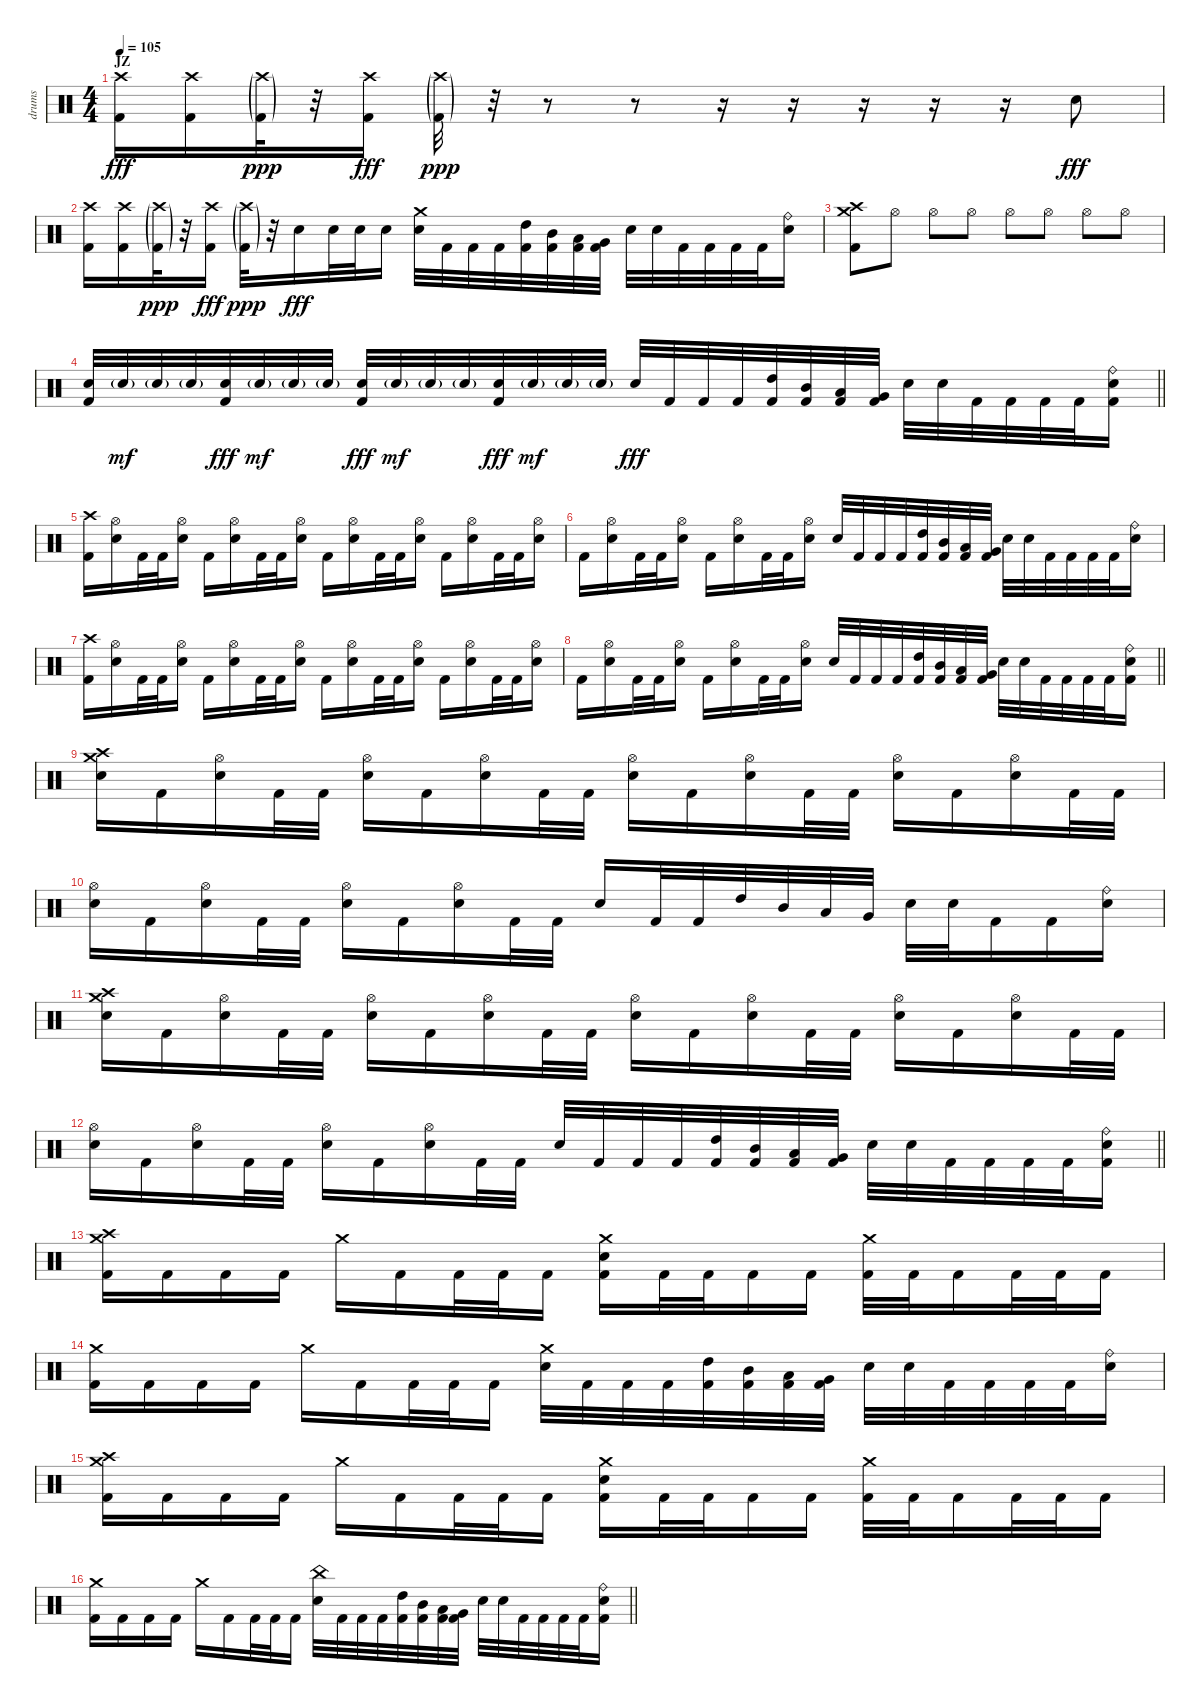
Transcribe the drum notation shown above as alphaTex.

\track ("drums" "drums") {instrument percussion}
\staff {score}
\articulation defaults
\ts (4 4)
\section ("" "JZ")
\tempo 105
\clef neutral
\ks c
("Crash high (hit)" "Kick (hit) 2").16{dy fff} ("Crash high (hit)" "Kick (hit) 2").16 ("Crash high (hit)"{g} "Kick (hit) 2"{g}).32{dy ppp} r.32 ("Crash high (hit)" "Kick (hit) 2").16{dy fff} ("Crash high (hit)"{g} "Kick (hit) 2"{g}).32{dy ppp} r.32 r.8 r.8 r.16 r.16 r.16 r.16 r.16 "Electric Snare (hit)".8{dy fff} |
("Crash high (hit)" "Kick (hit) 2").16 ("Crash high (hit)" "Kick (hit) 2").16 ("Crash high (hit)"{g} "Kick (hit) 2"{g}).32{dy ppp} r.32 ("Crash high (hit)" "Kick (hit) 2").16{dy fff} ("Crash high (hit)"{g} "Kick (hit) 2"{g}).32{dy ppp} r.32 "Electric Snare (hit)".16{dy fff} "Electric Snare (hit)".32 "Electric Snare (hit)".32 "Electric Snare (hit)".16 ("Crash medium (hit)" "Electric Snare (hit)").32 "Kick (hit) 2".32 "Kick (hit) 2".32 "Kick (hit) 2".32 ("High Tom (hit)" "Kick (hit) 2").32 ("Mid Tom (hit)" "Kick (hit) 2").32 ("Low Tom (hit)" "Kick (hit) 2").32 ("Very Low Tom (hit)" "Kick (hit) 2").32 "Electric Snare (hit)".32 "Electric Snare (hit)".32 "Kick (hit) 2".32 "Kick (hit) 2".32 "Kick (hit) 2".32 "Kick (hit) 2".32 ("Ride (bell)" "Electric Snare (hit)").16 |
("Crash high (hit)" "Crash medium (hit)" "Kick (hit) 2").8 "Hi-Hat (open)".8 "Hi-Hat (open)".8 "Hi-Hat (open)".8 "Hi-Hat (open)".8 "Hi-Hat (open)".8 "Hi-Hat (open)".8 "Hi-Hat (open)".8 |
\barLineRight lightlight
("Electric Snare (hit)" "Kick (hit) 2").32 "Electric Snare (hit)"{g}.32{dy mf} "Electric Snare (hit)"{g}.32 "Electric Snare (hit)"{g}.32 ("Electric Snare (hit)" "Kick (hit) 2").32{dy fff} "Electric Snare (hit)"{g}.32{dy mf} "Electric Snare (hit)"{g}.32 "Electric Snare (hit)"{g}.32 ("Electric Snare (hit)" "Kick (hit) 2").32{dy fff} "Electric Snare (hit)"{g}.32{dy mf} "Electric Snare (hit)"{g}.32 "Electric Snare (hit)"{g}.32 ("Electric Snare (hit)" "Kick (hit) 2").32{dy fff} "Electric Snare (hit)"{g}.32{dy mf} "Electric Snare (hit)"{g}.32 "Electric Snare (hit)"{g}.32 "Electric Snare (hit)".32{dy fff} "Kick (hit) 2".32 "Kick (hit) 2".32 "Kick (hit) 2".32 ("High Tom (hit)" "Kick (hit) 2").32 ("Mid Tom (hit)" "Kick (hit) 2").32 ("Low Tom (hit)" "Kick (hit) 2").32 ("Very Low Tom (hit)" "Kick (hit) 2").32 "Electric Snare (hit)".32 "Electric Snare (hit)".32 "Kick (hit) 2".32 "Kick (hit) 2".32 "Kick (hit) 2".32 "Kick (hit) 2".32 ("Ride (bell)" "Electric Snare (hit)" "Kick (hit) 2").16 |
\section ("" "")
("Crash high (hit)" "Kick (hit) 2").16 ("Hi-Hat (open)" "Electric Snare (hit)").16 "Kick (hit) 2".32 "Kick (hit) 2".32 ("Hi-Hat (open)" "Electric Snare (hit)").16 "Kick (hit) 2".16 ("Hi-Hat (open)" "Electric Snare (hit)").16 "Kick (hit) 2".32 "Kick (hit) 2".32 ("Hi-Hat (open)" "Electric Snare (hit)").16 "Kick (hit) 2".16 ("Hi-Hat (open)" "Electric Snare (hit)").16 "Kick (hit) 2".32 "Kick (hit) 2".32 ("Hi-Hat (open)" "Electric Snare (hit)").16 "Kick (hit) 2".16 ("Hi-Hat (open)" "Electric Snare (hit)").16 "Kick (hit) 2".32 "Kick (hit) 2".32 ("Hi-Hat (open)" "Electric Snare (hit)").16 |
"Kick (hit) 2".16 ("Hi-Hat (open)" "Electric Snare (hit)").16 "Kick (hit) 2".32 "Kick (hit) 2".32 ("Hi-Hat (open)" "Electric Snare (hit)").16 "Kick (hit) 2".16 ("Hi-Hat (open)" "Electric Snare (hit)").16 "Kick (hit) 2".32 "Kick (hit) 2".32 ("Hi-Hat (open)" "Electric Snare (hit)").16 "Electric Snare (hit)".32 "Kick (hit) 2".32 "Kick (hit) 2".32 "Kick (hit) 2".32 ("High Tom (hit)" "Kick (hit) 2").32 ("Mid Tom (hit)" "Kick (hit) 2").32 ("Low Tom (hit)" "Kick (hit) 2").32 ("Very Low Tom (hit)" "Kick (hit) 2").32 "Electric Snare (hit)".32 "Electric Snare (hit)".32 "Kick (hit) 2".32 "Kick (hit) 2".32 "Kick (hit) 2".32 "Kick (hit) 2".32 ("Ride (bell)" "Electric Snare (hit)").16 |
("Crash high (hit)" "Kick (hit) 2").16 ("Hi-Hat (open)" "Electric Snare (hit)").16 "Kick (hit) 2".32 "Kick (hit) 2".32 ("Hi-Hat (open)" "Electric Snare (hit)").16 "Kick (hit) 2".16 ("Hi-Hat (open)" "Electric Snare (hit)").16 "Kick (hit) 2".32 "Kick (hit) 2".32 ("Hi-Hat (open)" "Electric Snare (hit)").16 "Kick (hit) 2".16 ("Hi-Hat (open)" "Electric Snare (hit)").16 "Kick (hit) 2".32 "Kick (hit) 2".32 ("Hi-Hat (open)" "Electric Snare (hit)").16 "Kick (hit) 2".16 ("Hi-Hat (open)" "Electric Snare (hit)").16 "Kick (hit) 2".32 "Kick (hit) 2".32 ("Hi-Hat (open)" "Electric Snare (hit)").16 |
\barLineRight lightlight "Kick (hit) 2".16
("Hi-Hat (open)" "Electric Snare (hit)").16 "Kick (hit) 2".32 "Kick (hit) 2".32 ("Hi-Hat (open)" "Electric Snare (hit)").16 "Kick (hit) 2".16 ("Hi-Hat (open)" "Electric Snare (hit)").16 "Kick (hit) 2".32 "Kick (hit) 2".32 ("Hi-Hat (open)" "Electric Snare (hit)").16 "Electric Snare (hit)".32 "Kick (hit) 2".32 "Kick (hit) 2".32 "Kick (hit) 2".32 ("High Tom (hit)" "Kick (hit) 2").32 ("Mid Tom (hit)" "Kick (hit) 2").32 ("Low Tom (hit)" "Kick (hit) 2").32 ("Very Low Tom (hit)" "Kick (hit) 2").32 "Electric Snare (hit)".32 "Electric Snare (hit)".32 "Kick (hit) 2".32 "Kick (hit) 2".32 "Kick (hit) 2".32 "Kick (hit) 2".32 ("Ride (bell)" "Electric Snare (hit)" "Kick (hit) 2").16 |
\section ("" "")
("Crash high (hit)" "Crash medium (hit)" "Electric Snare (hit)").16 "Kick (hit) 2".16 ("Hi-Hat (open)" "Electric Snare (hit)").16 "Kick (hit) 2".32 "Kick (hit) 2".32 ("Hi-Hat (open)" "Electric Snare (hit)").16 "Kick (hit) 2".16 ("Hi-Hat (open)" "Electric Snare (hit)").16 "Kick (hit) 2".32 "Kick (hit) 2".32 ("Hi-Hat (open)" "Electric Snare (hit)").16 "Kick (hit) 2".16 ("Hi-Hat (open)" "Electric Snare (hit)").16 "Kick (hit) 2".32 "Kick (hit) 2".32 ("Hi-Hat (open)" "Electric Snare (hit)").16 "Kick (hit) 2".16 ("Hi-Hat (open)" "Electric Snare (hit)").16 "Kick (hit) 2".32 "Kick (hit) 2".32 |
("Hi-Hat (open)" "Electric Snare (hit)").16 "Kick (hit) 2".16 ("Hi-Hat (open)" "Electric Snare (hit)").16 "Kick (hit) 2".32 "Kick (hit) 2".32 ("Hi-Hat (open)" "Electric Snare (hit)").16 "Kick (hit) 2".16 ("Hi-Hat (open)" "Electric Snare (hit)").16 "Kick (hit) 2".32 "Kick (hit) 2".32 "Electric Snare (hit)".16 "Kick (hit) 2".32 "Kick (hit) 2".32 "High Tom (hit)".32 "Mid Tom (hit)".32 "Low Tom (hit)".32 "Very Low Tom (hit)".32 "Electric Snare (hit)".32 "Electric Snare (hit)".32 "Kick (hit) 2".16 "Kick (hit) 2".16 ("Ride (bell)" "Electric Snare (hit)").16 |
("Crash high (hit)" "Crash medium (hit)" "Electric Snare (hit)").16 "Kick (hit) 2".16 ("Hi-Hat (open)" "Electric Snare (hit)").16 "Kick (hit) 2".32 "Kick (hit) 2".32 ("Hi-Hat (open)" "Electric Snare (hit)").16 "Kick (hit) 2".16 ("Hi-Hat (open)" "Electric Snare (hit)").16 "Kick (hit) 2".32 "Kick (hit) 2".32 ("Hi-Hat (open)" "Electric Snare (hit)").16 "Kick (hit) 2".16 ("Hi-Hat (open)" "Electric Snare (hit)").16 "Kick (hit) 2".32 "Kick (hit) 2".32 ("Hi-Hat (open)" "Electric Snare (hit)").16 "Kick (hit) 2".16 ("Hi-Hat (open)" "Electric Snare (hit)").16 "Kick (hit) 2".32 "Kick (hit) 2".32 |
\barLineRight lightlight
("Hi-Hat (open)" "Electric Snare (hit)").16 "Kick (hit) 2".16 ("Hi-Hat (open)" "Electric Snare (hit)").16 "Kick (hit) 2".32 "Kick (hit) 2".32 ("Hi-Hat (open)" "Electric Snare (hit)").16 "Kick (hit) 2".16 ("Hi-Hat (open)" "Electric Snare (hit)").16 "Kick (hit) 2".32 "Kick (hit) 2".32 "Electric Snare (hit)".32 "Kick (hit) 2".32 "Kick (hit) 2".32 "Kick (hit) 2".32 ("High Tom (hit)" "Kick (hit) 2").32 ("Mid Tom (hit)" "Kick (hit) 2").32 ("Low Tom (hit)" "Kick (hit) 2").32 ("Very Low Tom (hit)" "Kick (hit) 2").32 "Electric Snare (hit)".32 "Electric Snare (hit)".32 "Kick (hit) 2".32 "Kick (hit) 2".32 "Kick (hit) 2".32 "Kick (hit) 2".32 ("Ride (bell)" "Electric Snare (hit)" "Kick (hit) 2").16 |
("Crash high (hit)" "Crash medium (hit)" "Kick (hit) 2").16 "Kick (hit) 2".16 "Kick (hit) 2".16 "Kick (hit) 2".16 "Crash medium (hit)".16 "Kick (hit) 2".16 "Kick (hit) 2".32 "Kick (hit) 2".32 "Kick (hit) 2".16 ("Crash medium (hit)" "Electric Snare (hit)" "Kick (hit) 2").16 "Kick (hit) 2".32 "Kick (hit) 2".32 "Kick (hit) 2".16 "Kick (hit) 2".16 ("Crash medium (hit)" "Kick (hit) 2").32 "Kick (hit) 2".32 "Kick (hit) 2".16 "Kick (hit) 2".32 "Kick (hit) 2".32 "Kick (hit) 2".16 |
("Crash medium (hit)" "Kick (hit) 2").16 "Kick (hit) 2".16 "Kick (hit) 2".16 "Kick (hit) 2".16 "Crash medium (hit)".16 "Kick (hit) 2".16 "Kick (hit) 2".32 "Kick (hit) 2".32 "Kick (hit) 2".16 ("Crash medium (hit)" "Electric Snare (hit)").32 "Kick (hit) 2".32 "Kick (hit) 2".32 "Kick (hit) 2".32 ("High Tom (hit)" "Kick (hit) 2").32 ("Mid Tom (hit)" "Kick (hit) 2").32 ("Low Tom (hit)" "Kick (hit) 2").32 ("Very Low Tom (hit)" "Kick (hit) 2").32 "Electric Snare (hit)".32 "Electric Snare (hit)".32 "Kick (hit) 2".32 "Kick (hit) 2".32 "Kick (hit) 2".32 "Kick (hit) 2".32 ("Ride (bell)" "Electric Snare (hit)").16 |
("Crash high (hit)" "Crash medium (hit)" "Kick (hit) 2").16 "Kick (hit) 2".16 "Kick (hit) 2".16 "Kick (hit) 2".16 "Crash medium (hit)".16 "Kick (hit) 2".16 "Kick (hit) 2".32 "Kick (hit) 2".32 "Kick (hit) 2".16 ("Crash medium (hit)" "Electric Snare (hit)" "Kick (hit) 2").16 "Kick (hit) 2".32 "Kick (hit) 2".32 "Kick (hit) 2".16 "Kick (hit) 2".16 ("Crash medium (hit)" "Kick (hit) 2").32 "Kick (hit) 2".32 "Kick (hit) 2".16 "Kick (hit) 2".32 "Kick (hit) 2".32 "Kick (hit) 2".16 |
\barLineRight lightlight
("Crash medium (hit)" "Kick (hit) 2").16 "Kick (hit) 2".16 "Kick (hit) 2".16 "Kick (hit) 2".16 "Crash medium (hit)".16 "Kick (hit) 2".16 "Kick (hit) 2".32 "Kick (hit) 2".32 "Kick (hit) 2".16 ("China (hit)" "Electric Snare (hit)").32 "Kick (hit) 2".32 "Kick (hit) 2".32 "Kick (hit) 2".32 ("High Tom (hit)" "Kick (hit) 2").32 ("Mid Tom (hit)" "Kick (hit) 2").32 ("Low Tom (hit)" "Kick (hit) 2").32 ("Very Low Tom (hit)" "Kick (hit) 2").32 "Electric Snare (hit)".32 "Electric Snare (hit)".32 "Kick (hit) 2".32 "Kick (hit) 2".32 "Kick (hit) 2".32 "Kick (hit) 2".32 ("Ride (bell)" "Electric Snare (hit)" "Kick (hit) 2").16
